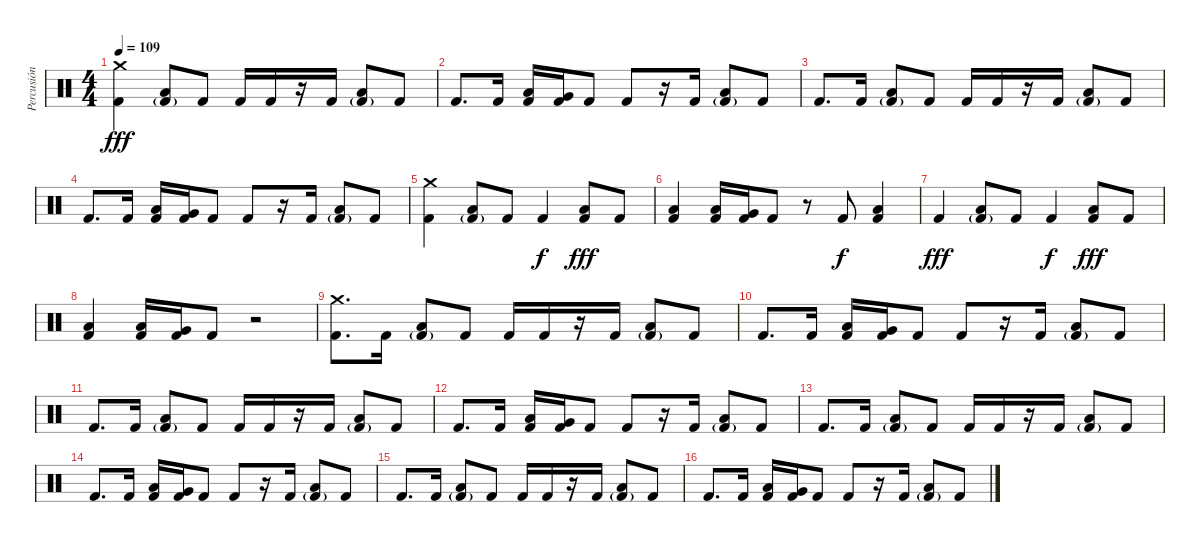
\track ("Percusión" "Percusión") {instrument percussion}
\staff {score}
\articulation defaults
\ts (4 4)
\tempo 109
\clef neutral
\ks c
("Crash medium (hit)" "Kick (hit) 2").4{dy fff} ("Low Tom (hit)" "Kick (hit) 2"{g}).8 "Kick (hit) 2".8 "Kick (hit) 2".16 "Kick (hit) 2".16 r.16 "Kick (hit) 2".16 ("Low Tom (hit)" "Kick (hit) 2"{g}).8 "Kick (hit) 2".8 |
"Kick (hit) 2".8{d} "Kick (hit) 2".16 ("Low Tom (hit)" "Kick (hit) 2").16 ("Very Low Tom (hit)" "Kick (hit) 2").16 "Kick (hit) 2".8 "Kick (hit) 2".8 r.16 "Kick (hit) 2".16 ("Low Tom (hit)" "Kick (hit) 2"{g}).8 "Kick (hit) 2".8 |
"Kick (hit) 2".8{d} "Kick (hit) 2".16 ("Low Tom (hit)" "Kick (hit) 2"{g}).8 "Kick (hit) 2".8 "Kick (hit) 2".16 "Kick (hit) 2".16 r.16 "Kick (hit) 2".16 ("Low Tom (hit)" "Kick (hit) 2"{g}).8 "Kick (hit) 2".8 |
"Kick (hit) 2".8{d} "Kick (hit) 2".16 ("Low Tom (hit)" "Kick (hit) 2").16 ("Very Low Tom (hit)" "Kick (hit) 2").16 "Kick (hit) 2".8 "Kick (hit) 2".8 r.16 "Kick (hit) 2".16 ("Low Tom (hit)" "Kick (hit) 2"{g}).8 "Kick (hit) 2".8 |
("Crash medium (hit)" "Kick (hit) 2").4 ("Low Tom (hit)" "Kick (hit) 2"{g}).8 "Kick (hit) 2".8 "Kick (hit) 2".4{dy f} ("Low Tom (hit)" "Kick (hit) 2").8{dy fff} "Kick (hit) 2".8 |
("Low Tom (hit)" "Kick (hit) 2").4 ("Low Tom (hit)" "Kick (hit) 2").16 ("Very Low Tom (hit)" "Kick (hit) 2").16 "Kick (hit) 2".8 r.8 "Kick (hit) 2".8{dy f} ("Low Tom (hit)" "Kick (hit) 2").4 |
"Kick (hit) 2".4{dy fff} ("Low Tom (hit)" "Kick (hit) 2"{g}).8 "Kick (hit) 2".8 "Kick (hit) 2".4{dy f} ("Low Tom (hit)" "Kick (hit) 2").8{dy fff} "Kick (hit) 2".8 |
("Low Tom (hit)" "Kick (hit) 2").4 ("Low Tom (hit)" "Kick (hit) 2").16 ("Very Low Tom (hit)" "Kick (hit) 2").16 "Kick (hit) 2".8 r.2 |
("Crash medium (hit)" "Kick (hit) 2").8{d} "Kick (hit) 2".16 ("Low Tom (hit)" "Kick (hit) 2"{g}).8 "Kick (hit) 2".8 "Kick (hit) 2".16 "Kick (hit) 2".16 r.16 "Kick (hit) 2".16 ("Low Tom (hit)" "Kick (hit) 2"{g}).8 "Kick (hit) 2".8 |
"Kick (hit) 2".8{d} "Kick (hit) 2".16 ("Low Tom (hit)" "Kick (hit) 2").16 ("Very Low Tom (hit)" "Kick (hit) 2").16 "Kick (hit) 2".8 "Kick (hit) 2".8 r.16 "Kick (hit) 2".16 ("Low Tom (hit)" "Kick (hit) 2"{g}).8 "Kick (hit) 2".8 |
"Kick (hit) 2".8{d} "Kick (hit) 2".16 ("Low Tom (hit)" "Kick (hit) 2"{g}).8 "Kick (hit) 2".8 "Kick (hit) 2".16 "Kick (hit) 2".16 r.16 "Kick (hit) 2".16 ("Low Tom (hit)" "Kick (hit) 2"{g}).8 "Kick (hit) 2".8 |
"Kick (hit) 2".8{d} "Kick (hit) 2".16 ("Low Tom (hit)" "Kick (hit) 2").16 ("Very Low Tom (hit)" "Kick (hit) 2").16 "Kick (hit) 2".8 "Kick (hit) 2".8 r.16 "Kick (hit) 2".16 ("Low Tom (hit)" "Kick (hit) 2"{g}).8 "Kick (hit) 2".8 |
"Kick (hit) 2".8{d} "Kick (hit) 2".16 ("Low Tom (hit)" "Kick (hit) 2"{g}).8 "Kick (hit) 2".8 "Kick (hit) 2".16 "Kick (hit) 2".16 r.16 "Kick (hit) 2".16 ("Low Tom (hit)" "Kick (hit) 2"{g}).8 "Kick (hit) 2".8 |
"Kick (hit) 2".8{d} "Kick (hit) 2".16 ("Low Tom (hit)" "Kick (hit) 2").16 ("Very Low Tom (hit)" "Kick (hit) 2").16 "Kick (hit) 2".8 "Kick (hit) 2".8 r.16 "Kick (hit) 2".16 ("Low Tom (hit)" "Kick (hit) 2"{g}).8 "Kick (hit) 2".8 |
"Kick (hit) 2".8{d} "Kick (hit) 2".16 ("Low Tom (hit)" "Kick (hit) 2"{g}).8 "Kick (hit) 2".8 "Kick (hit) 2".16 "Kick (hit) 2".16 r.16 "Kick (hit) 2".16 ("Low Tom (hit)" "Kick (hit) 2"{g}).8 "Kick (hit) 2".8 |
"Kick (hit) 2".8{d} "Kick (hit) 2".16 ("Low Tom (hit)" "Kick (hit) 2").16 ("Very Low Tom (hit)" "Kick (hit) 2").16 "Kick (hit) 2".8 "Kick (hit) 2".8 r.16 "Kick (hit) 2".16 ("Low Tom (hit)" "Kick (hit) 2"{g}).8 "Kick (hit) 2".8
